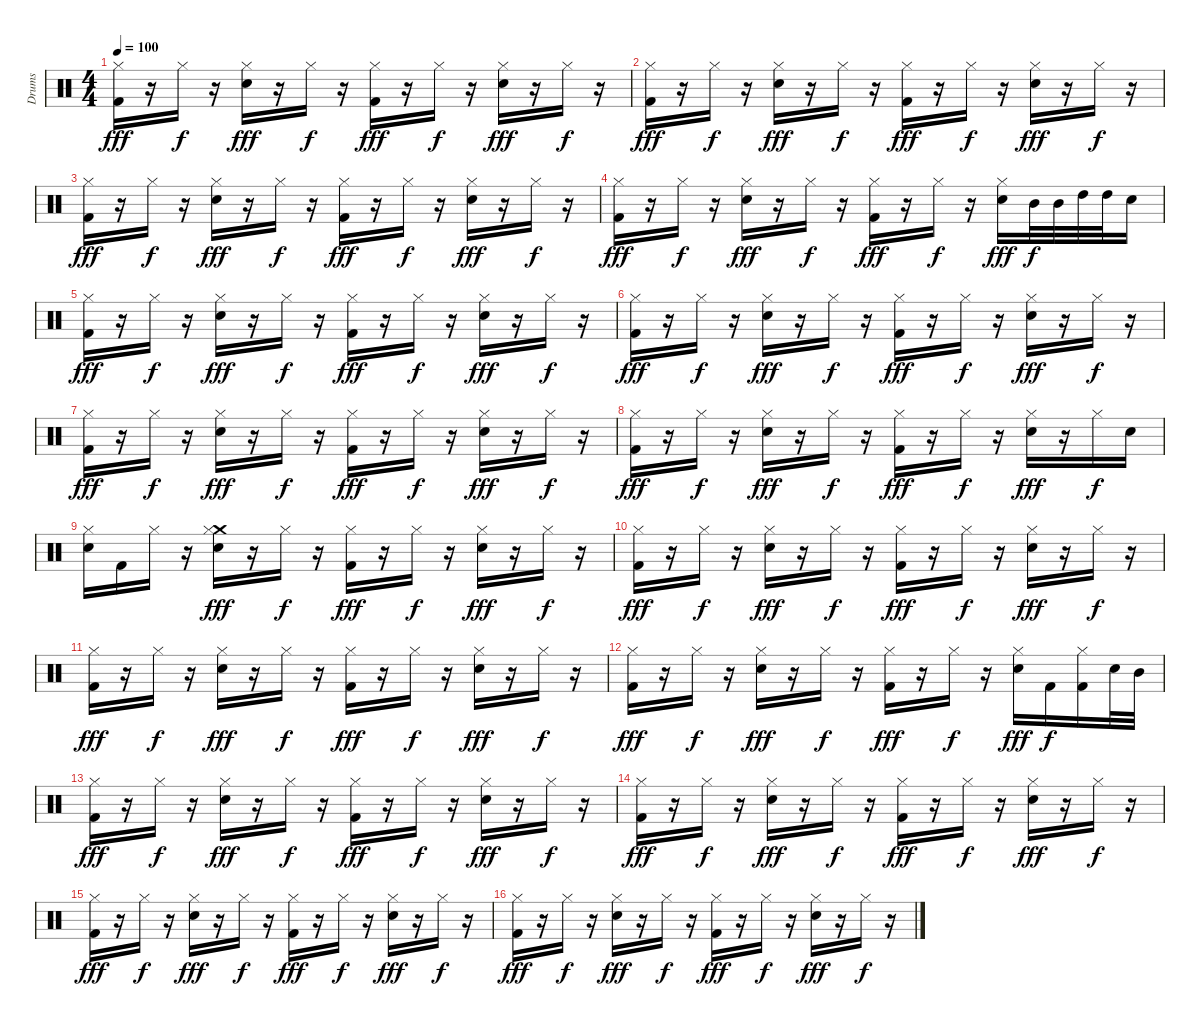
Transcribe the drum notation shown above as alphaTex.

\track ("Drums" "Drums") {instrument percussion}
\staff {score}
\articulation defaults
\ts (4 4)
\tempo 100
\clef neutral
\ks c
("Hi-Hat (closed)" "Kick (hit) 2").16{dy fff} r.16 "Hi-Hat (closed)".16{dy f} r.16 ("Hi-Hat (closed)" "Electric Snare (hit)").16{dy fff} r.16 "Hi-Hat (closed)".16{dy f} r.16 ("Hi-Hat (closed)" "Kick (hit) 2").16{dy fff} r.16 "Hi-Hat (closed)".16{dy f} r.16 ("Hi-Hat (closed)" "Electric Snare (hit)").16{dy fff} r.16 "Hi-Hat (closed)".16{dy f} r.16 |
("Hi-Hat (closed)" "Kick (hit) 2").16{dy fff} r.16 "Hi-Hat (closed)".16{dy f} r.16 ("Hi-Hat (closed)" "Electric Snare (hit)").16{dy fff} r.16 "Hi-Hat (closed)".16{dy f} r.16 ("Hi-Hat (closed)" "Kick (hit) 2").16{dy fff} r.16 "Hi-Hat (closed)".16{dy f} r.16 ("Hi-Hat (closed)" "Electric Snare (hit)").16{dy fff} r.16 "Hi-Hat (closed)".16{dy f} r.16 |
("Hi-Hat (closed)" "Kick (hit) 2").16{dy fff} r.16 "Hi-Hat (closed)".16{dy f} r.16 ("Hi-Hat (closed)" "Electric Snare (hit)").16{dy fff} r.16 "Hi-Hat (closed)".16{dy f} r.16 ("Hi-Hat (closed)" "Kick (hit) 2").16{dy fff} r.16 "Hi-Hat (closed)".16{dy f} r.16 ("Hi-Hat (closed)" "Electric Snare (hit)").16{dy fff} r.16 "Hi-Hat (closed)".16{dy f} r.16 |
("Hi-Hat (closed)" "Kick (hit) 2").16{dy fff} r.16 "Hi-Hat (closed)".16{dy f} r.16 ("Hi-Hat (closed)" "Electric Snare (hit)").16{dy fff} r.16 "Hi-Hat (closed)".16{dy f} r.16 ("Hi-Hat (closed)" "Kick (hit) 2").16{dy fff} r.16 "Hi-Hat (closed)".16{dy f} r.16 ("Hi-Hat (closed)" "Electric Snare (hit)").16{dy fff} "Mid Tom (hit)".32{dy f} "Mid Tom (hit)".32 "High Tom (hit)".32 "High Tom (hit)".32 "Electric Snare (hit)".16 |
("Hi-Hat (closed)" "Kick (hit) 2").16{dy fff} r.16 "Hi-Hat (closed)".16{dy f} r.16 ("Hi-Hat (closed)" "Electric Snare (hit)").16{dy fff} r.16 "Hi-Hat (closed)".16{dy f} r.16 ("Hi-Hat (closed)" "Kick (hit) 2").16{dy fff} r.16 "Hi-Hat (closed)".16{dy f} r.16 ("Hi-Hat (closed)" "Electric Snare (hit)").16{dy fff} r.16 "Hi-Hat (closed)".16{dy f} r.16 |
("Hi-Hat (closed)" "Kick (hit) 2").16{dy fff} r.16 "Hi-Hat (closed)".16{dy f} r.16 ("Hi-Hat (closed)" "Electric Snare (hit)").16{dy fff} r.16 "Hi-Hat (closed)".16{dy f} r.16 ("Hi-Hat (closed)" "Kick (hit) 2").16{dy fff} r.16 "Hi-Hat (closed)".16{dy f} r.16 ("Hi-Hat (closed)" "Electric Snare (hit)").16{dy fff} r.16 "Hi-Hat (closed)".16{dy f} r.16 |
("Hi-Hat (closed)" "Kick (hit) 2").16{dy fff} r.16 "Hi-Hat (closed)".16{dy f} r.16 ("Hi-Hat (closed)" "Electric Snare (hit)").16{dy fff} r.16 "Hi-Hat (closed)".16{dy f} r.16 ("Hi-Hat (closed)" "Kick (hit) 2").16{dy fff} r.16 "Hi-Hat (closed)".16{dy f} r.16 ("Hi-Hat (closed)" "Electric Snare (hit)").16{dy fff} r.16 "Hi-Hat (closed)".16{dy f} r.16 |
("Hi-Hat (closed)" "Kick (hit) 2").16{dy fff} r.16 "Hi-Hat (closed)".16{dy f} r.16 ("Hi-Hat (closed)" "Electric Snare (hit)").16{dy fff} r.16 "Hi-Hat (closed)".16{dy f} r.16 ("Hi-Hat (closed)" "Kick (hit) 2").16{dy fff} r.16 "Hi-Hat (closed)".16{dy f} r.16 ("Hi-Hat (closed)" "Electric Snare (hit)").16{dy fff} r.16 "Hi-Hat (closed)".16{dy f} "Electric Snare (hit)".16 |
("Hi-Hat (closed)" "Electric Snare (hit)").16 "Kick (hit) 2".16 "Hi-Hat (closed)".16 r.16 ("Crash medium (hit)" "Hi-Hat (closed)" "Electric Snare (hit)").16{dy fff} r.16 "Hi-Hat (closed)".16{dy f} r.16 ("Hi-Hat (closed)" "Kick (hit) 2").16{dy fff} r.16 "Hi-Hat (closed)".16{dy f} r.16 ("Hi-Hat (closed)" "Electric Snare (hit)").16{dy fff} r.16 "Hi-Hat (closed)".16{dy f} r.16 |
("Hi-Hat (closed)" "Kick (hit) 2").16{dy fff} r.16 "Hi-Hat (closed)".16{dy f} r.16 ("Hi-Hat (closed)" "Electric Snare (hit)").16{dy fff} r.16 "Hi-Hat (closed)".16{dy f} r.16 ("Hi-Hat (closed)" "Kick (hit) 2").16{dy fff} r.16 "Hi-Hat (closed)".16{dy f} r.16 ("Hi-Hat (closed)" "Electric Snare (hit)").16{dy fff} r.16 "Hi-Hat (closed)".16{dy f} r.16 |
("Hi-Hat (closed)" "Kick (hit) 2").16{dy fff} r.16 "Hi-Hat (closed)".16{dy f} r.16 ("Hi-Hat (closed)" "Electric Snare (hit)").16{dy fff} r.16 "Hi-Hat (closed)".16{dy f} r.16 ("Hi-Hat (closed)" "Kick (hit) 2").16{dy fff} r.16 "Hi-Hat (closed)".16{dy f} r.16 ("Hi-Hat (closed)" "Electric Snare (hit)").16{dy fff} r.16 "Hi-Hat (closed)".16{dy f} r.16 |
("Hi-Hat (closed)" "Kick (hit) 2").16{dy fff} r.16 "Hi-Hat (closed)".16{dy f} r.16 ("Hi-Hat (closed)" "Electric Snare (hit)").16{dy fff} r.16 "Hi-Hat (closed)".16{dy f} r.16 ("Hi-Hat (closed)" "Kick (hit) 2").16{dy fff} r.16 "Hi-Hat (closed)".16{dy f} r.16 ("Hi-Hat (closed)" "Electric Snare (hit)").16{dy fff} "Kick (hit) 2".16{dy f} ("Hi-Hat (closed)" "Kick (hit) 2").16 "Electric Snare (hit)".32 "Mid Tom (hit)".32 |
("Hi-Hat (closed)" "Kick (hit) 2").16{dy fff} r.16 "Hi-Hat (closed)".16{dy f} r.16 ("Hi-Hat (closed)" "Electric Snare (hit)").16{dy fff} r.16 "Hi-Hat (closed)".16{dy f} r.16 ("Hi-Hat (closed)" "Kick (hit) 2").16{dy fff} r.16 "Hi-Hat (closed)".16{dy f} r.16 ("Hi-Hat (closed)" "Electric Snare (hit)").16{dy fff} r.16 "Hi-Hat (closed)".16{dy f} r.16 |
("Hi-Hat (closed)" "Kick (hit) 2").16{dy fff} r.16 "Hi-Hat (closed)".16{dy f} r.16 ("Hi-Hat (closed)" "Electric Snare (hit)").16{dy fff} r.16 "Hi-Hat (closed)".16{dy f} r.16 ("Hi-Hat (closed)" "Kick (hit) 2").16{dy fff} r.16 "Hi-Hat (closed)".16{dy f} r.16 ("Hi-Hat (closed)" "Electric Snare (hit)").16{dy fff} r.16 "Hi-Hat (closed)".16{dy f} r.16 |
("Hi-Hat (closed)" "Kick (hit) 2").16{dy fff} r.16 "Hi-Hat (closed)".16{dy f} r.16 ("Hi-Hat (closed)" "Electric Snare (hit)").16{dy fff} r.16 "Hi-Hat (closed)".16{dy f} r.16 ("Hi-Hat (closed)" "Kick (hit) 2").16{dy fff} r.16 "Hi-Hat (closed)".16{dy f} r.16 ("Hi-Hat (closed)" "Electric Snare (hit)").16{dy fff} r.16 "Hi-Hat (closed)".16{dy f} r.16 |
("Hi-Hat (closed)" "Kick (hit) 2").16{dy fff} r.16 "Hi-Hat (closed)".16{dy f} r.16 ("Hi-Hat (closed)" "Electric Snare (hit)").16{dy fff} r.16 "Hi-Hat (closed)".16{dy f} r.16 ("Hi-Hat (closed)" "Kick (hit) 2").16{dy fff} r.16 "Hi-Hat (closed)".16{dy f} r.16 ("Hi-Hat (closed)" "Electric Snare (hit)").16{dy fff} r.16 "Hi-Hat (closed)".16{dy f} r.16
